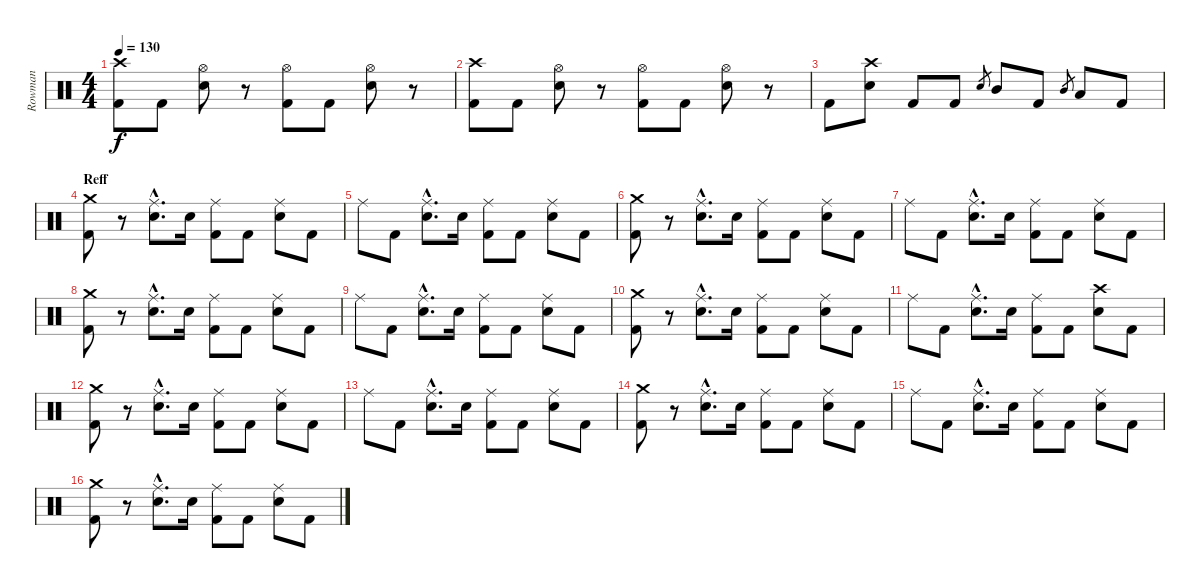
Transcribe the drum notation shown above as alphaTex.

\track ("Rowman" "Rowman") {instrument percussion}
\staff {score}
\articulation defaults
\ts (4 4)
\tempo 130
\clef neutral
\ks c
("Kick (hit) 2" "Crash high (hit)").8{dy f} "Kick (hit) 2".8 ("Electric Snare (hit)" "Hi-Hat (open)").8 r.8 ("Kick (hit) 2" "Hi-Hat (open)").8 "Kick (hit) 2".8 ("Electric Snare (hit)" "Hi-Hat (open)").8 r.8 |
("Kick (hit) 2" "Crash high (hit)").8 "Kick (hit) 2".8 ("Electric Snare (hit)" "Hi-Hat (open)").8 r.8 ("Kick (hit) 2" "Hi-Hat (open)").8 "Kick (hit) 2".8 ("Electric Snare (hit)" "Hi-Hat (open)").8 r.8 |
"Kick (hit) 2".8 ("Electric Snare (hit)" "Crash high (hit)").8 "Kick (hit) 2".8 "Kick (hit) 2".8 "Electric Snare (hit)".8{gr} "Mid Tom (hit)".8 "Kick (hit) 2".8 "Mid Tom (hit)".8{gr} "Low Tom (hit)".8 "Kick (hit) 2".8 |
\section ("" "Reff")
("Kick (hit) 2" "Crash medium (hit)").8 r.8 ("Electric Snare (hit)"{hac} "Ride (middle)"{hac}).8{d} "Electric Snare (hit)".16 ("Kick (hit) 2" "Ride (middle)").8 "Kick (hit) 2".8 ("Electric Snare (hit)" "Ride (middle)").8 "Kick (hit) 2".8 |
"Ride (middle)".8 "Kick (hit) 2".8 ("Electric Snare (hit)"{hac} "Ride (middle)"{hac}).8{d} "Electric Snare (hit)".16 ("Kick (hit) 2" "Ride (middle)").8 "Kick (hit) 2".8 ("Electric Snare (hit)" "Ride (middle)").8 "Kick (hit) 2".8 |
("Kick (hit) 2" "Crash medium (hit)").8 r.8 ("Electric Snare (hit)"{hac} "Ride (middle)"{hac}).8{d} "Electric Snare (hit)".16 ("Kick (hit) 2" "Ride (middle)").8 "Kick (hit) 2".8 ("Electric Snare (hit)" "Ride (middle)").8 "Kick (hit) 2".8 |
"Ride (middle)".8 "Kick (hit) 2".8 ("Electric Snare (hit)"{hac} "Ride (middle)"{hac}).8{d} "Electric Snare (hit)".16 ("Kick (hit) 2" "Ride (middle)").8 "Kick (hit) 2".8 ("Electric Snare (hit)" "Ride (middle)").8 "Kick (hit) 2".8 |
("Kick (hit) 2" "Crash medium (hit)").8 r.8 ("Electric Snare (hit)"{hac} "Ride (middle)"{hac}).8{d} "Electric Snare (hit)".16 ("Kick (hit) 2" "Ride (middle)").8 "Kick (hit) 2".8 ("Electric Snare (hit)" "Ride (middle)").8 "Kick (hit) 2".8 |
"Ride (middle)".8 "Kick (hit) 2".8 ("Electric Snare (hit)"{hac} "Ride (middle)"{hac}).8{d} "Electric Snare (hit)".16 ("Kick (hit) 2" "Ride (middle)").8 "Kick (hit) 2".8 ("Electric Snare (hit)" "Ride (middle)").8 "Kick (hit) 2".8 |
("Kick (hit) 2" "Crash medium (hit)").8 r.8 ("Electric Snare (hit)"{hac} "Ride (middle)"{hac}).8{d} "Electric Snare (hit)".16 ("Kick (hit) 2" "Ride (middle)").8 "Kick (hit) 2".8 ("Electric Snare (hit)" "Ride (middle)").8 "Kick (hit) 2".8 |
"Ride (middle)".8 "Kick (hit) 2".8 ("Electric Snare (hit)"{hac} "Ride (middle)"{hac}).8{d} "Electric Snare (hit)".16 ("Kick (hit) 2" "Ride (middle)").8 "Kick (hit) 2".8 ("Electric Snare (hit)" "Crash high (hit)").8 "Kick (hit) 2".8 |
("Kick (hit) 2" "Crash medium (hit)").8 r.8 ("Electric Snare (hit)"{hac} "Ride (middle)"{hac}).8{d} "Electric Snare (hit)".16 ("Kick (hit) 2" "Ride (middle)").8 "Kick (hit) 2".8 ("Electric Snare (hit)" "Ride (middle)").8 "Kick (hit) 2".8 |
"Ride (middle)".8 "Kick (hit) 2".8 ("Electric Snare (hit)"{hac} "Ride (middle)"{hac}).8{d} "Electric Snare (hit)".16 ("Kick (hit) 2" "Ride (middle)").8 "Kick (hit) 2".8 ("Electric Snare (hit)" "Ride (middle)").8 "Kick (hit) 2".8 |
("Kick (hit) 2" "Crash medium (hit)").8 r.8 ("Electric Snare (hit)"{hac} "Ride (middle)"{hac}).8{d} "Electric Snare (hit)".16 ("Kick (hit) 2" "Ride (middle)").8 "Kick (hit) 2".8 ("Electric Snare (hit)" "Ride (middle)").8 "Kick (hit) 2".8 |
"Ride (middle)".8 "Kick (hit) 2".8 ("Electric Snare (hit)"{hac} "Ride (middle)"{hac}).8{d} "Electric Snare (hit)".16 ("Kick (hit) 2" "Ride (middle)").8 "Kick (hit) 2".8 ("Electric Snare (hit)" "Ride (middle)").8 "Kick (hit) 2".8 |
("Kick (hit) 2" "Crash medium (hit)").8 r.8 ("Electric Snare (hit)"{hac} "Ride (middle)"{hac}).8{d} "Electric Snare (hit)".16 ("Kick (hit) 2" "Ride (middle)").8 "Kick (hit) 2".8 ("Electric Snare (hit)" "Ride (middle)").8 "Kick (hit) 2".8
